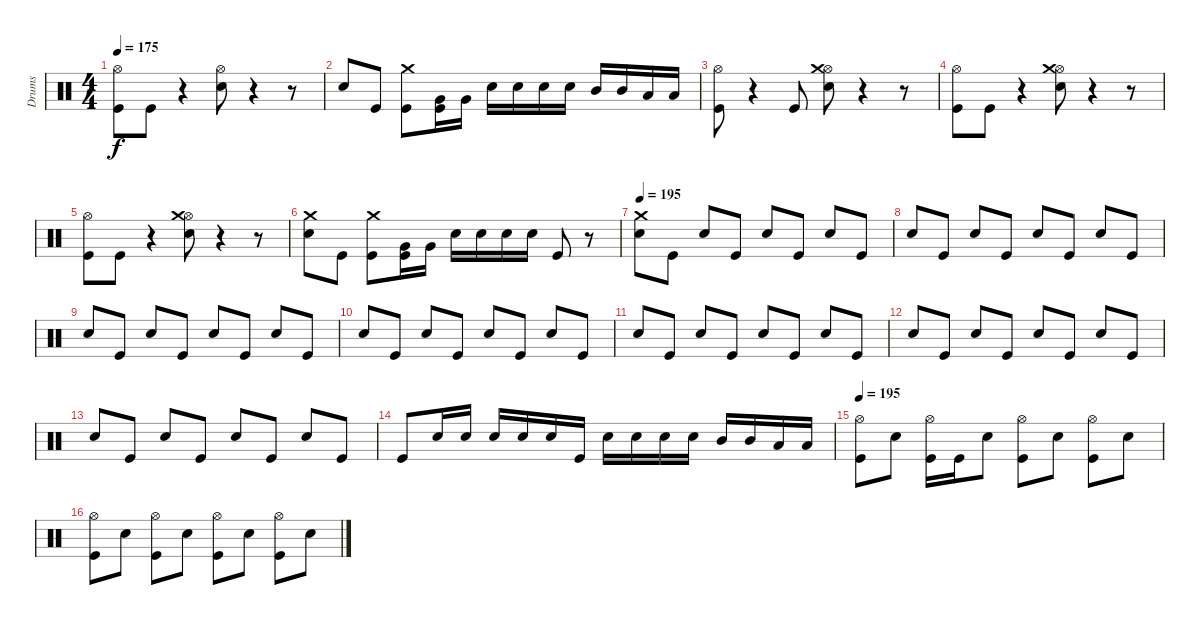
\track ("Drums" "Drums") {instrument percussion}
\staff {score}
\articulation defaults
\ts (4 4)
\tempo 175
\clef neutral
\ks c
("Hi-Hat (open)" "Kick (hit)").8{dy f} "Kick (hit)".8 r.4 ("Hi-Hat (open)" "Snare (hit) 2").8 r.4 r.8 |
"Snare (hit) 2".8 "Kick (hit)".8 ("Crash medium (hit)" "Kick (hit)").8 ("Kick (hit)" "Very Low Tom (hit)").16 "Very Low Tom (hit)".16 "Snare (hit) 2".16 "Snare (hit) 2".16 "Snare (hit) 2".16 "Snare (hit) 2".16 "Mid Tom (hit)".16 "Mid Tom (hit)".16 "Low Tom (hit)".16 "Low Tom (hit)".16 |
("Hi-Hat (open)" "Kick (hit)").8 r.4 "Kick (hit)".8 ("Hi-Hat (open)" "Crash medium (hit)" "Snare (hit) 2").8 r.4 r.8 |
("Hi-Hat (open)" "Kick (hit)").8 "Kick (hit)".8 r.4 ("Hi-Hat (open)" "Crash medium (hit)" "Snare (hit) 2").8 r.4 r.8 |
("Hi-Hat (open)" "Kick (hit)").8 "Kick (hit)".8 r.4 ("Hi-Hat (open)" "Crash medium (hit)" "Snare (hit) 2").8 r.4 r.8 |
("Crash medium (hit)" "Snare (hit) 2").8 "Kick (hit)".8 ("Crash medium (hit)" "Kick (hit)").8 ("Kick (hit)" "Very Low Tom (hit)").16 "Very Low Tom (hit)".16 "Snare (hit) 2".16 "Snare (hit) 2".16 "Snare (hit) 2".16 "Snare (hit) 2".16 "Kick (hit)".8 r.8 |
\tempo 195
("Crash medium (hit)" "Snare (hit) 2").8 "Kick (hit)".8 "Snare (hit) 2".8 "Kick (hit)".8 "Snare (hit) 2".8 "Kick (hit)".8 "Snare (hit) 2".8 "Kick (hit)".8 |
"Snare (hit) 2".8 "Kick (hit)".8 "Snare (hit) 2".8 "Kick (hit)".8 "Snare (hit) 2".8 "Kick (hit)".8 "Snare (hit) 2".8 "Kick (hit)".8 |
"Snare (hit) 2".8 "Kick (hit)".8 "Snare (hit) 2".8 "Kick (hit)".8 "Snare (hit) 2".8 "Kick (hit)".8 "Snare (hit) 2".8 "Kick (hit)".8 |
"Snare (hit) 2".8 "Kick (hit)".8 "Snare (hit) 2".8 "Kick (hit)".8 "Snare (hit) 2".8 "Kick (hit)".8 "Snare (hit) 2".8 "Kick (hit)".8 |
"Snare (hit) 2".8 "Kick (hit)".8 "Snare (hit) 2".8 "Kick (hit)".8 "Snare (hit) 2".8 "Kick (hit)".8 "Snare (hit) 2".8 "Kick (hit)".8 |
"Snare (hit) 2".8 "Kick (hit)".8 "Snare (hit) 2".8 "Kick (hit)".8 "Snare (hit) 2".8 "Kick (hit)".8 "Snare (hit) 2".8 "Kick (hit)".8 |
"Snare (hit) 2".8 "Kick (hit)".8 "Snare (hit) 2".8 "Kick (hit)".8 "Snare (hit) 2".8 "Kick (hit)".8 "Snare (hit) 2".8 "Kick (hit)".8 |
"Kick (hit)".8 "Snare (hit) 2".16 "Snare (hit) 2".16 "Snare (hit) 2".16 "Snare (hit) 2".16 "Snare (hit) 2".16 "Kick (hit)".16 "Snare (hit) 2".16 "Snare (hit) 2".16 "Snare (hit) 2".16 "Snare (hit) 2".16 "Mid Tom (hit)".16 "Mid Tom (hit)".16 "Low Tom (hit)".16 "Low Tom (hit)".16 |
\tempo 195
("Hi-Hat (open)" "Kick (hit)").8 "Snare (hit) 2".8 ("Hi-Hat (open)" "Kick (hit)").16 "Kick (hit)".16 "Snare (hit) 2".8 ("Hi-Hat (open)" "Kick (hit)").8 "Snare (hit) 2".8 ("Hi-Hat (open)" "Kick (hit)").8 "Snare (hit) 2".8 |
("Hi-Hat (open)" "Kick (hit)").8 "Snare (hit) 2".8 ("Hi-Hat (open)" "Kick (hit)").8 "Snare (hit) 2".8 ("Hi-Hat (open)" "Kick (hit)").8 "Snare (hit) 2".8 ("Hi-Hat (open)" "Kick (hit)").8 "Snare (hit) 2".8
